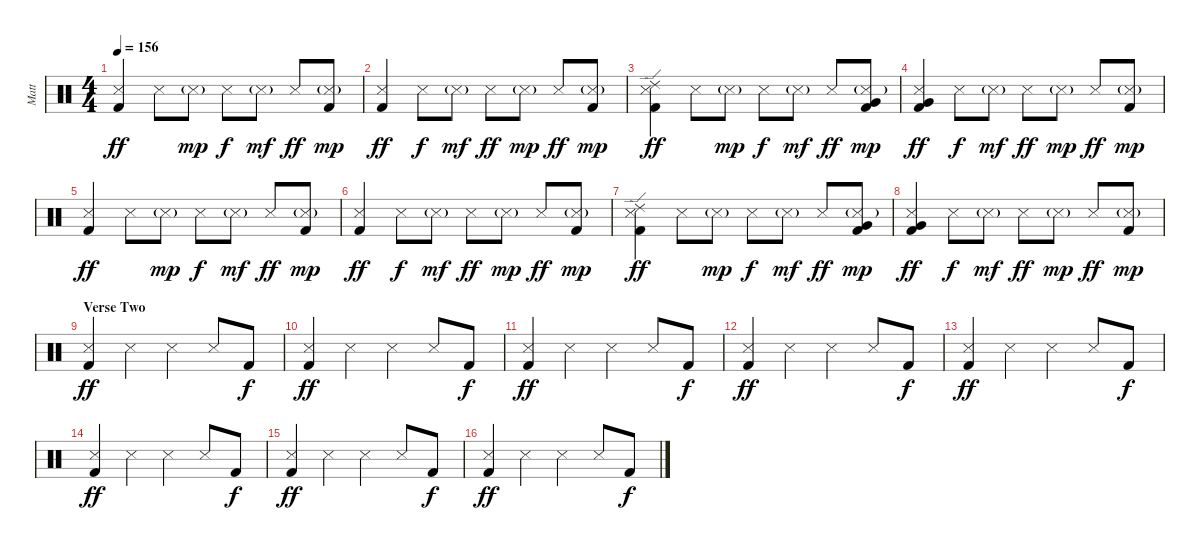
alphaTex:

\track ("Matt" "Matt") {instrument percussion}
\staff {score}
\articulation defaults
\ts (4 4)
\tempo 156
\clef neutral
\ks c
("Snare (side stick) 3" "Kick (hit) 2").4{dy ff} "Snare (side stick) 3".8 "Snare (side stick) 3"{g}.8{dy mp} "Snare (side stick) 3".8{dy f} "Snare (side stick) 3"{g}.8{dy mf} "Snare (side stick) 3".8{dy ff} ("Snare (side stick) 3"{g} "Kick (hit) 2").8{dy mp} |
("Snare (side stick) 3" "Kick (hit) 2").4{dy ff} "Snare (side stick) 3".8{dy f} "Snare (side stick) 3"{g}.8{dy mf} "Snare (side stick) 3".8{dy ff} "Snare (side stick) 3"{g}.8{dy mp} "Snare (side stick) 3".8{dy ff} ("Snare (side stick) 3"{g} "Kick (hit) 2").8{dy mp} |
("Ride (edge) 2" "Snare (side stick) 3" "Kick (hit) 2").4{dy ff} "Snare (side stick) 3".8 "Snare (side stick) 3"{g}.8{dy mp} "Snare (side stick) 3".8{dy f} "Snare (side stick) 3"{g}.8{dy mf} "Snare (side stick) 3".8{dy ff} ("Snare (side stick) 3"{g} "Very Low Tom (hit)" "Kick (hit) 2").8{dy mp} |
("Snare (side stick) 3" "Very Low Tom (hit)" "Kick (hit) 2").4{dy ff} "Snare (side stick) 3".8{dy f} "Snare (side stick) 3"{g}.8{dy mf} "Snare (side stick) 3".8{dy ff} "Snare (side stick) 3"{g}.8{dy mp} "Snare (side stick) 3".8{dy ff} ("Snare (side stick) 3"{g} "Kick (hit) 2").8{dy mp} |
("Snare (side stick) 3" "Kick (hit) 2").4{dy ff} "Snare (side stick) 3".8 "Snare (side stick) 3"{g}.8{dy mp} "Snare (side stick) 3".8{dy f} "Snare (side stick) 3"{g}.8{dy mf} "Snare (side stick) 3".8{dy ff} ("Snare (side stick) 3"{g} "Kick (hit) 2").8{dy mp} |
("Snare (side stick) 3" "Kick (hit) 2").4{dy ff} "Snare (side stick) 3".8{dy f} "Snare (side stick) 3"{g}.8{dy mf} "Snare (side stick) 3".8{dy ff} "Snare (side stick) 3"{g}.8{dy mp} "Snare (side stick) 3".8{dy ff} ("Snare (side stick) 3"{g} "Kick (hit) 2").8{dy mp} |
("Ride (edge) 2" "Snare (side stick) 3" "Kick (hit) 2").4{dy ff} "Snare (side stick) 3".8 "Snare (side stick) 3"{g}.8{dy mp} "Snare (side stick) 3".8{dy f} "Snare (side stick) 3"{g}.8{dy mf} "Snare (side stick) 3".8{dy ff} ("Snare (side stick) 3"{g} "Very Low Tom (hit)" "Kick (hit) 2").8{dy mp} |
("Snare (side stick) 3" "Very Low Tom (hit)" "Kick (hit) 2").4{dy ff} "Snare (side stick) 3".8{dy f} "Snare (side stick) 3"{g}.8{dy mf} "Snare (side stick) 3".8{dy ff} "Snare (side stick) 3"{g}.8{dy mp} "Snare (side stick) 3".8{dy ff} ("Snare (side stick) 3"{g} "Kick (hit) 2").8{dy mp} |
\section ("" "Verse Two")
("Snare (side stick) 3" "Kick (hit) 2").4{dy ff} "Snare (side stick) 3".4 "Snare (side stick) 3".4 "Snare (side stick) 3".8 "Kick (hit) 2".8{dy f} |
("Snare (side stick) 3" "Kick (hit) 2").4{dy ff} "Snare (side stick) 3".4 "Snare (side stick) 3".4 "Snare (side stick) 3".8 "Kick (hit) 2".8{dy f} |
("Snare (side stick) 3" "Kick (hit) 2").4{dy ff} "Snare (side stick) 3".4 "Snare (side stick) 3".4 "Snare (side stick) 3".8 "Kick (hit) 2".8{dy f} |
("Snare (side stick) 3" "Kick (hit) 2").4{dy ff} "Snare (side stick) 3".4 "Snare (side stick) 3".4 "Snare (side stick) 3".8 "Kick (hit) 2".8{dy f} |
("Snare (side stick) 3" "Kick (hit) 2").4{dy ff} "Snare (side stick) 3".4 "Snare (side stick) 3".4 "Snare (side stick) 3".8 "Kick (hit) 2".8{dy f} |
("Snare (side stick) 3" "Kick (hit) 2").4{dy ff} "Snare (side stick) 3".4 "Snare (side stick) 3".4 "Snare (side stick) 3".8 "Kick (hit) 2".8{dy f} |
("Snare (side stick) 3" "Kick (hit) 2").4{dy ff} "Snare (side stick) 3".4 "Snare (side stick) 3".4 "Snare (side stick) 3".8 "Kick (hit) 2".8{dy f} |
("Snare (side stick) 3" "Kick (hit) 2").4{dy ff} "Snare (side stick) 3".4 "Snare (side stick) 3".4 "Snare (side stick) 3".8 "Kick (hit) 2".8{dy f}
